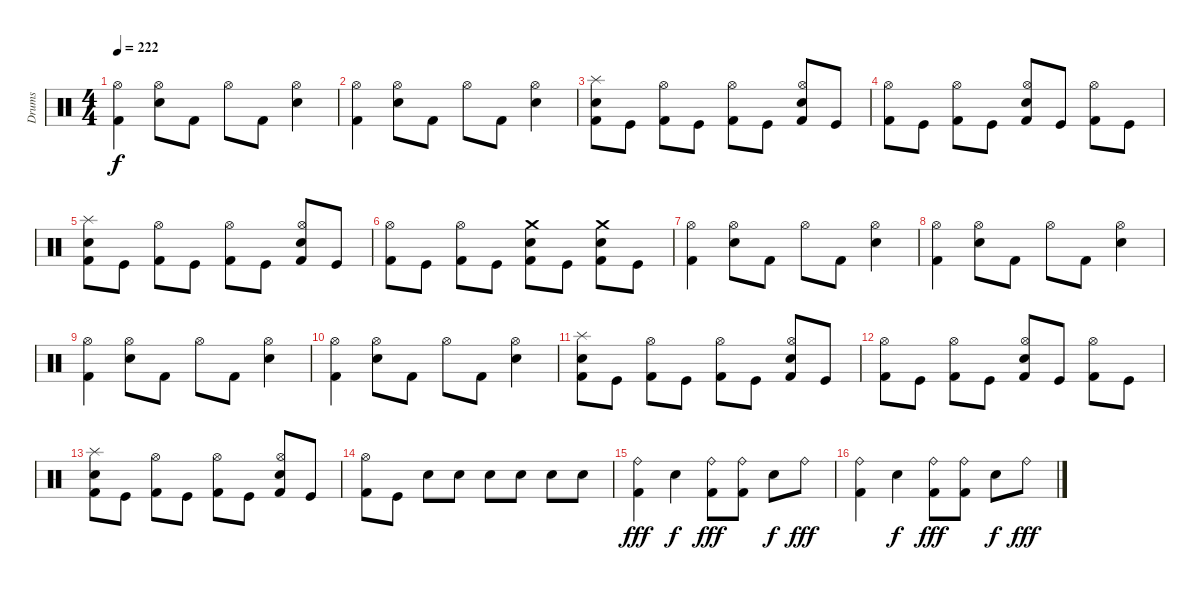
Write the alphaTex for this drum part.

\track ("Drums" "Drums") {instrument percussion}
\staff {score}
\articulation defaults
\ts (4 4)
\tempo 222
\clef neutral
\ks c
("Kick (hit) 2" "Hi-Hat (open)").4{dy f} ("Electric Snare (hit)" "Hi-Hat (open)").8 "Kick (hit) 2".8 "Hi-Hat (open)".8 "Kick (hit) 2".8 ("Electric Snare (hit)" "Hi-Hat (open)").4 |
("Kick (hit) 2" "Hi-Hat (open)").4 ("Electric Snare (hit)" "Hi-Hat (open)").8 "Kick (hit) 2".8 "Hi-Hat (open)".8 "Kick (hit) 2".8 ("Electric Snare (hit)" "Hi-Hat (open)").4 |
("Kick (hit) 2" "Electric Snare (hit)" "Splash (hit)").8 "Kick (hit)".8 ("Kick (hit) 2" "Hi-Hat (open)").8 "Kick (hit)".8 ("Kick (hit) 2" "Hi-Hat (open)").8 "Kick (hit)".8 ("Kick (hit) 2" "Electric Snare (hit)" "Hi-Hat (open)").8 "Kick (hit)".8 |
("Kick (hit) 2" "Hi-Hat (open)").8 "Kick (hit)".8 ("Kick (hit) 2" "Hi-Hat (open)").8 "Kick (hit)".8 ("Kick (hit) 2" "Electric Snare (hit)" "Hi-Hat (open)").8 "Kick (hit)".8 ("Kick (hit) 2" "Hi-Hat (open)").8 "Kick (hit)".8 |
("Kick (hit) 2" "Electric Snare (hit)" "Splash (hit)").8 "Kick (hit)".8 ("Kick (hit) 2" "Hi-Hat (open)").8 "Kick (hit)".8 ("Kick (hit) 2" "Hi-Hat (open)").8 "Kick (hit)".8 ("Kick (hit) 2" "Electric Snare (hit)" "Hi-Hat (open)").8 "Kick (hit)".8 |
("Kick (hit) 2" "Hi-Hat (open)").8 "Kick (hit)".8 ("Kick (hit) 2" "Hi-Hat (open)").8 "Kick (hit)".8 ("Kick (hit) 2" "Electric Snare (hit)" "Crash medium (hit)").8 "Kick (hit)".8 ("Kick (hit) 2" "Electric Snare (hit)" "Crash medium (hit)").8 "Kick (hit)".8 |
("Kick (hit) 2" "Hi-Hat (open)").4 ("Electric Snare (hit)" "Hi-Hat (open)").8 "Kick (hit) 2".8 "Hi-Hat (open)".8 "Kick (hit) 2".8 ("Electric Snare (hit)" "Hi-Hat (open)").4 |
("Kick (hit) 2" "Hi-Hat (open)").4 ("Electric Snare (hit)" "Hi-Hat (open)").8 "Kick (hit) 2".8 "Hi-Hat (open)".8 "Kick (hit) 2".8 ("Electric Snare (hit)" "Hi-Hat (open)").4 |
("Kick (hit) 2" "Hi-Hat (open)").4 ("Electric Snare (hit)" "Hi-Hat (open)").8 "Kick (hit) 2".8 "Hi-Hat (open)".8 "Kick (hit) 2".8 ("Electric Snare (hit)" "Hi-Hat (open)").4 |
("Kick (hit) 2" "Hi-Hat (open)").4 ("Electric Snare (hit)" "Hi-Hat (open)").8 "Kick (hit) 2".8 "Hi-Hat (open)".8 "Kick (hit) 2".8 ("Electric Snare (hit)" "Hi-Hat (open)").4 |
("Kick (hit) 2" "Electric Snare (hit)" "Splash (hit)").8 "Kick (hit)".8 ("Kick (hit) 2" "Hi-Hat (open)").8 "Kick (hit)".8 ("Kick (hit) 2" "Hi-Hat (open)").8 "Kick (hit)".8 ("Kick (hit) 2" "Electric Snare (hit)" "Hi-Hat (open)").8 "Kick (hit)".8 |
("Kick (hit) 2" "Hi-Hat (open)").8 "Kick (hit)".8 ("Kick (hit) 2" "Hi-Hat (open)").8 "Kick (hit)".8 ("Kick (hit) 2" "Electric Snare (hit)" "Hi-Hat (open)").8 "Kick (hit)".8 ("Kick (hit) 2" "Hi-Hat (open)").8 "Kick (hit)".8 |
("Kick (hit) 2" "Electric Snare (hit)" "Splash (hit)").8 "Kick (hit)".8 ("Kick (hit) 2" "Hi-Hat (open)").8 "Kick (hit)".8 ("Kick (hit) 2" "Hi-Hat (open)").8 "Kick (hit)".8 ("Kick (hit) 2" "Electric Snare (hit)" "Hi-Hat (open)").8 "Kick (hit)".8 |
("Kick (hit) 2" "Hi-Hat (open)").8 "Kick (hit)".8 "Electric Snare (hit)".8 "Electric Snare (hit)".8 "Electric Snare (hit)".8 "Electric Snare (hit)".8 "Electric Snare (hit)".8 "Electric Snare (hit)".8 |
("Kick (hit) 2" "Ride (bell)").4{dy fff} "Electric Snare (hit)".4{dy f} ("Kick (hit) 2" "Ride (bell)").8{dy fff} ("Kick (hit) 2" "Ride (bell)").8 "Electric Snare (hit)".8{dy f} "Ride (bell)".8{dy fff} |
("Kick (hit) 2" "Ride (bell)").4 "Electric Snare (hit)".4{dy f} ("Kick (hit) 2" "Ride (bell)").8{dy fff} ("Kick (hit) 2" "Ride (bell)").8 "Electric Snare (hit)".8{dy f} "Ride (bell)".8{dy fff}
